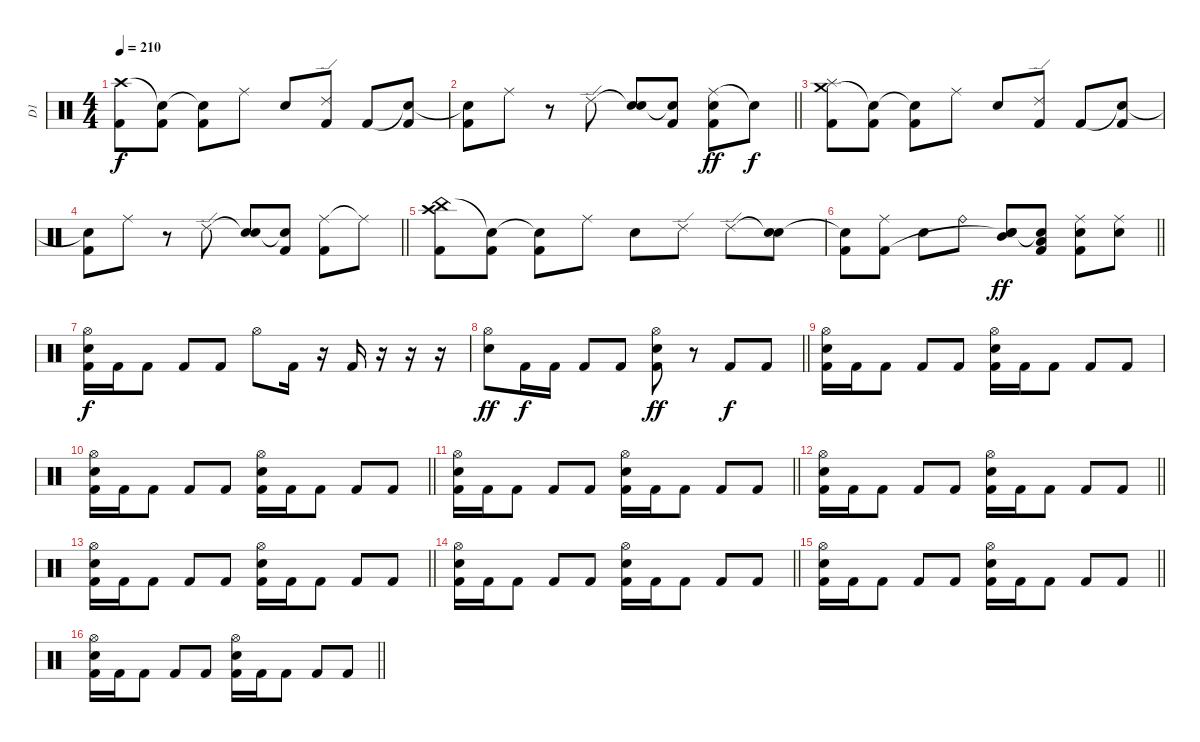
\track ("D1" "D1") {instrument percussion}
\staff {score}
\articulation defaults
\ts (4 4)
\tempo 210
\clef neutral
\ks c
("Crash high (hit)" "Kick (hit) 2").8{dy f} ("Snare (hit)"{t} "Kick (hit) 2").8 ("Snare (hit)"{t} "Kick (hit) 2").8 "Ride (middle)".8 "Snare (hit) 2".8 ("Ride (edge) 2" "Kick (hit) 2").8 "Kick (hit) 2".8 ("Snare (hit)"{t} "Kick (hit) 2").8 |
\barLineRight lightlight
("Snare (hit)"{t} "Kick (hit) 2").8 "Ride (middle)".8 r.8 "Ride (edge) 2".8 ("Snare (hit)"{t} "Snare (hit) 2").8 ("Snare (hit)"{t} "Kick (hit) 2").8 ("Ride (middle)" "Kick (hit) 2" "Snare (hit) 2").8{dy ff} "Snare (hit)"{t}.8{dy f} |
("Crash medium (hit)" "Splash (hit)" "Kick (hit) 2").8 ("Snare (hit)"{t} "Kick (hit) 2").8 ("Snare (hit)"{t} "Kick (hit) 2").8 "Ride (middle)".8 "Snare (hit) 2".8 ("Ride (edge) 2" "Kick (hit) 2").8 "Kick (hit) 2".8 ("Snare (hit)"{t} "Kick (hit) 2").8 |
\barLineRight lightlight
("Snare (hit)"{t} "Kick (hit) 2").8 "Ride (middle)".8 r.8 "Ride (edge) 2".8 ("Snare (hit)"{t} "Snare (hit) 2").8 ("Snare (hit)"{t} "Kick (hit) 2").8 ("Ride (middle)" "Kick (hit) 2").8 "Ride (middle)"{t}.8 |
("China (hit)" "Crash high (hit)" "Kick (hit) 2").8 ("Snare (hit)"{t} "Kick (hit) 2").8 ("Snare (hit)"{t} "Kick (hit) 2").8 "Ride (middle)".8 "Snare (hit) 2".8 "Ride (edge) 2".8 "Ride (edge) 2".8 ("Snare (hit)"{t} "Snare (hit) 2").8 |
\barLineRight lightlight
("Snare (hit)"{t} "Kick (hit) 2").8 ("Ride (middle)" "Kick (hit) 2").8 "Snare (hit) 2".8 "Ride (bell)".8 ("Mid Tom (hit)" "Snare (hit)"{t} "Snare (hit) 2").8{dy ff} ("Low Tom (hit)" "Snare (hit)"{t} "Kick (hit) 2").8 ("Snare (hit) 2" "Ride (middle)" "Kick (hit) 2").8 ("Snare (hit) 2" "Ride (middle)").8 |
("Kick (hit) 2" "Snare (hit) 2" "Hi-Hat (open)").16{dy f} "Kick (hit) 2".16 "Kick (hit) 2".8 "Kick (hit) 2".8 "Kick (hit) 2".8 "Hi-Hat (open)".8 "Kick (hit) 2".16 r.16 "Kick (hit) 2".16 r.16 r.16 r.16 |
\barLineRight lightlight
("Hi-Hat (open)" "Snare (hit) 2").8{dy ff} "Kick (hit) 2".16{dy f} "Kick (hit) 2".16 "Kick (hit) 2".8 "Kick (hit) 2".8 ("Hi-Hat (open)" "Snare (hit) 2" "Kick (hit) 2").8{dy ff} r.8 "Kick (hit) 2".8{dy f} "Kick (hit) 2".8 |
("Kick (hit) 2" "Snare (hit) 2" "Hi-Hat (open)").16 "Kick (hit) 2".16 "Kick (hit) 2".8 "Kick (hit) 2".8 "Kick (hit) 2".8 ("Kick (hit) 2" "Snare (hit) 2" "Hi-Hat (open)").16 "Kick (hit) 2".16 "Kick (hit) 2".8 "Kick (hit) 2".8 "Kick (hit) 2".8 |
\barLineRight lightlight
("Kick (hit) 2" "Snare (hit) 2" "Hi-Hat (open)").16 "Kick (hit) 2".16 "Kick (hit) 2".8 "Kick (hit) 2".8 "Kick (hit) 2".8 ("Kick (hit) 2" "Snare (hit) 2" "Hi-Hat (open)").16 "Kick (hit) 2".16 "Kick (hit) 2".8 "Kick (hit) 2".8 "Kick (hit) 2".8 |
\section ("" "")
\barLineRight lightlight
("Kick (hit) 2" "Snare (hit) 2" "Hi-Hat (open)").16 "Kick (hit) 2".16 "Kick (hit) 2".8 "Kick (hit) 2".8 "Kick (hit) 2".8 ("Kick (hit) 2" "Snare (hit) 2" "Hi-Hat (open)").16 "Kick (hit) 2".16 "Kick (hit) 2".8 "Kick (hit) 2".8 "Kick (hit) 2".8 |
\barLineRight lightlight
("Kick (hit) 2" "Snare (hit) 2" "Hi-Hat (open)").16 "Kick (hit) 2".16 "Kick (hit) 2".8 "Kick (hit) 2".8 "Kick (hit) 2".8 ("Kick (hit) 2" "Snare (hit) 2" "Hi-Hat (open)").16 "Kick (hit) 2".16 "Kick (hit) 2".8 "Kick (hit) 2".8 "Kick (hit) 2".8 |
\barLineRight lightlight
("Kick (hit) 2" "Snare (hit) 2" "Hi-Hat (open)").16 "Kick (hit) 2".16 "Kick (hit) 2".8 "Kick (hit) 2".8 "Kick (hit) 2".8 ("Kick (hit) 2" "Snare (hit) 2" "Hi-Hat (open)").16 "Kick (hit) 2".16 "Kick (hit) 2".8 "Kick (hit) 2".8 "Kick (hit) 2".8 |
\barLineRight lightlight
("Kick (hit) 2" "Snare (hit) 2" "Hi-Hat (open)").16 "Kick (hit) 2".16 "Kick (hit) 2".8 "Kick (hit) 2".8 "Kick (hit) 2".8 ("Kick (hit) 2" "Snare (hit) 2" "Hi-Hat (open)").16 "Kick (hit) 2".16 "Kick (hit) 2".8 "Kick (hit) 2".8 "Kick (hit) 2".8 |
\barLineRight lightlight
("Kick (hit) 2" "Snare (hit) 2" "Hi-Hat (open)").16 "Kick (hit) 2".16 "Kick (hit) 2".8 "Kick (hit) 2".8 "Kick (hit) 2".8 ("Kick (hit) 2" "Snare (hit) 2" "Hi-Hat (open)").16 "Kick (hit) 2".16 "Kick (hit) 2".8 "Kick (hit) 2".8 "Kick (hit) 2".8 |
\barLineRight lightlight
("Kick (hit) 2" "Snare (hit) 2" "Hi-Hat (open)").16 "Kick (hit) 2".16 "Kick (hit) 2".8 "Kick (hit) 2".8 "Kick (hit) 2".8 ("Kick (hit) 2" "Snare (hit) 2" "Hi-Hat (open)").16 "Kick (hit) 2".16 "Kick (hit) 2".8 "Kick (hit) 2".8 "Kick (hit) 2".8
